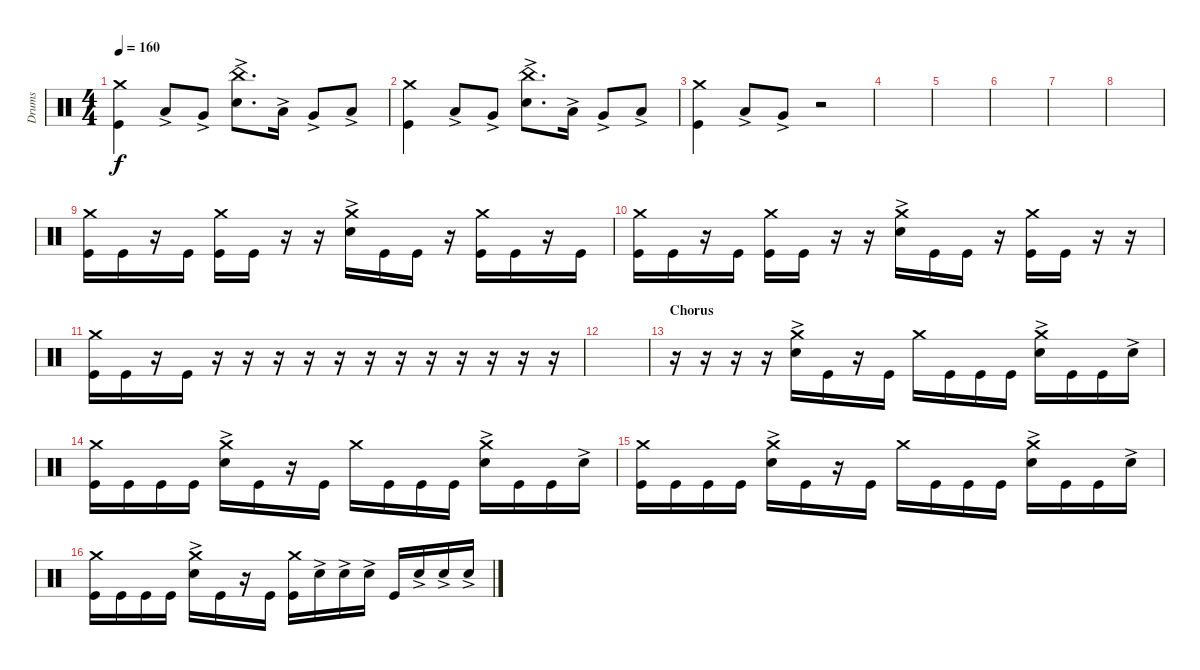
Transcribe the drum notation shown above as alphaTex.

\track ("Drums" "Drums") {instrument percussion}
\staff {score}
\articulation defaults
\ts (4 4)
\tempo 160
\clef neutral
\ks c
("Kick (hit)" "Crash medium (hit)").4{dy f} "Low Tom (hit)"{ac}.8 "Very Low Tom (hit)"{ac}.8 ("Snare (hit) 2"{ac} "China (hit)"{ac}).8{d} "Low Tom (hit)"{ac}.16 "Very Low Tom (hit)"{ac}.8 "Low Floor Tom (hit)"{ac}.8 |
("Kick (hit)" "Crash medium (hit)").4 "Low Tom (hit)"{ac}.8 "Very Low Tom (hit)"{ac}.8 ("Snare (hit) 2"{ac} "China (hit)"{ac}).8{d} "Low Tom (hit)"{ac}.16 "Very Low Tom (hit)"{ac}.8 "Low Floor Tom (hit)"{ac}.8 |
("Kick (hit)" "Crash medium (hit)").4 "Low Tom (hit)"{ac}.8 "Very Low Tom (hit)"{ac}.8 r.2 |
|
|
|
|
|
("Crash medium (hit)" "Kick (hit)").16 "Kick (hit)".16 r.16 "Kick (hit)".16 ("Crash medium (hit)" "Kick (hit)").16 "Kick (hit)".16 r.16 r.16 ("Crash medium (hit)" "Snare (hit) 2"{ac}).16 "Kick (hit)".16 "Kick (hit)".16 r.16 ("Crash medium (hit)" "Kick (hit)").16 "Kick (hit)".16 r.16 "Kick (hit)".16 |
("Crash medium (hit)" "Kick (hit)").16 "Kick (hit)".16 r.16 "Kick (hit)".16 ("Crash medium (hit)" "Kick (hit)").16 "Kick (hit)".16 r.16 r.16 ("Crash medium (hit)" "Snare (hit) 2"{ac}).16 "Kick (hit)".16 "Kick (hit)".16 r.16 ("Crash medium (hit)" "Kick (hit)").16 "Kick (hit)".16 r.16 r.16 |
("Crash medium (hit)" "Kick (hit)").16 "Kick (hit)".16 r.16 "Kick (hit)".16 r.16 r.16 r.16 r.16 r.16 r.16 r.16 r.16 r.16 r.16 r.16 r.16 |
|
\section ("" "Chorus")
r.16 r.16 r.16 r.16 ("Crash medium (hit)" "Snare (hit) 2"{ac}).16 "Kick (hit)".16 r.16 "Kick (hit)".16 "Crash medium (hit)".16 "Kick (hit)".16 "Kick (hit)".16 "Kick (hit)".16 ("Crash medium (hit)" "Snare (hit) 2"{ac}).16 "Kick (hit)".16 "Kick (hit)".16 "Snare (hit) 2"{ac}.16 |
("Crash medium (hit)" "Kick (hit)").16 "Kick (hit)".16 "Kick (hit)".16 "Kick (hit)".16 ("Crash medium (hit)" "Snare (hit) 2"{ac}).16 "Kick (hit)".16 r.16 "Kick (hit)".16 "Crash medium (hit)".16 "Kick (hit)".16 "Kick (hit)".16 "Kick (hit)".16 ("Crash medium (hit)" "Snare (hit) 2"{ac}).16 "Kick (hit)".16 "Kick (hit)".16 "Snare (hit) 2"{ac}.16 |
("Crash medium (hit)" "Kick (hit)").16 "Kick (hit)".16 "Kick (hit)".16 "Kick (hit)".16 ("Crash medium (hit)" "Snare (hit) 2"{ac}).16 "Kick (hit)".16 r.16 "Kick (hit)".16 "Crash medium (hit)".16 "Kick (hit)".16 "Kick (hit)".16 "Kick (hit)".16 ("Crash medium (hit)" "Snare (hit) 2"{ac}).16 "Kick (hit)".16 "Kick (hit)".16 "Snare (hit) 2"{ac}.16 |
("Crash medium (hit)" "Kick (hit)").16 "Kick (hit)".16 "Kick (hit)".16 "Kick (hit)".16 ("Crash medium (hit)" "Snare (hit) 2"{ac}).16 "Kick (hit)".16 r.16 "Kick (hit)".16 ("Kick (hit)" "Crash medium (hit)").16 "Snare (hit) 2"{ac}.16 "Snare (hit) 2"{ac}.16 "Snare (hit) 2"{ac}.16 "Kick (hit)".16 "Snare (hit) 2"{ac}.16 "Snare (hit) 2"{ac}.16 "Snare (hit) 2"{ac}.16
